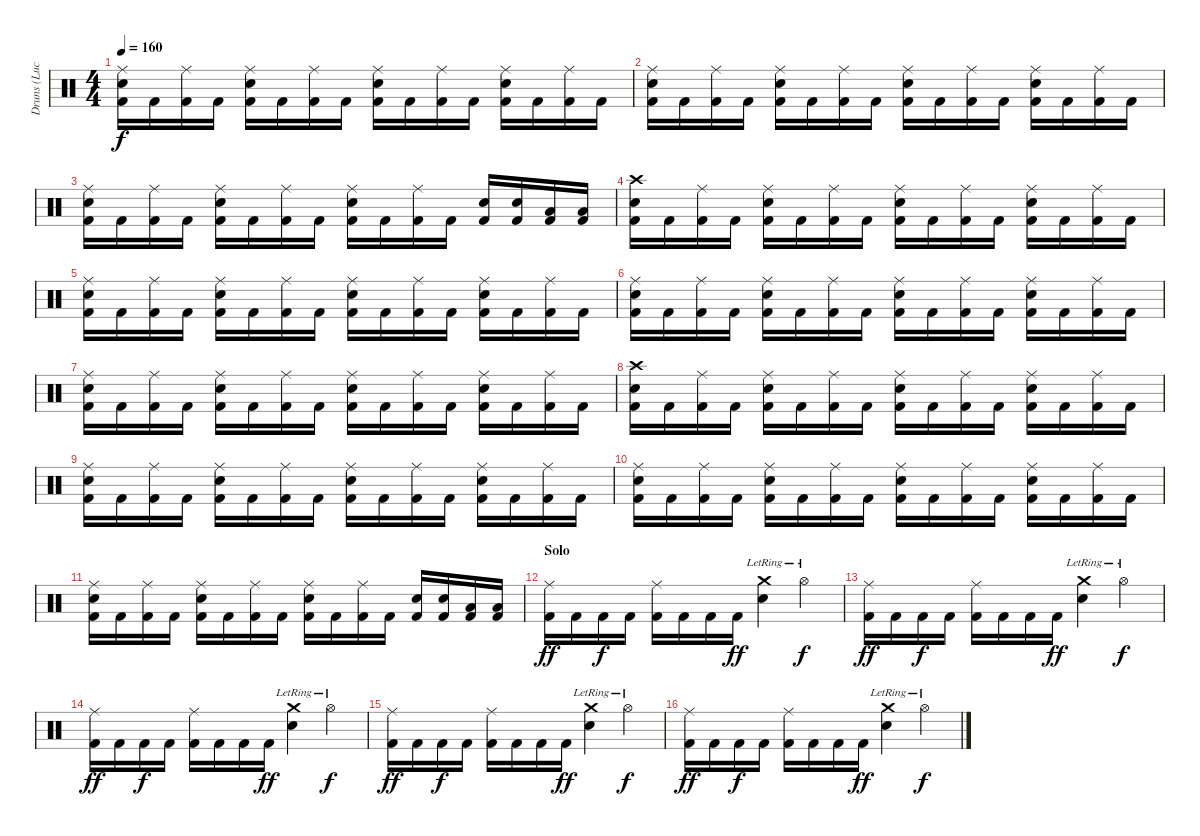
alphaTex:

\track ("Druns (Lucas Zigarti)" "Druns (Luc") {instrument percussion}
\staff {score}
\articulation defaults
\ts (4 4)
\tempo 160
\clef neutral
\ks c
("Electric Snare (hit)" "Ride (middle)" "Kick (hit) 2").16{dy f} "Kick (hit) 2".16 ("Ride (middle)" "Kick (hit) 2").16 "Kick (hit) 2".16 ("Electric Snare (hit)" "Ride (middle)" "Kick (hit) 2").16 "Kick (hit) 2".16 ("Ride (middle)" "Kick (hit) 2").16 "Kick (hit) 2".16 ("Electric Snare (hit)" "Ride (middle)" "Kick (hit) 2").16 "Kick (hit) 2".16 ("Ride (middle)" "Kick (hit) 2").16 "Kick (hit) 2".16 ("Electric Snare (hit)" "Ride (middle)" "Kick (hit) 2").16 "Kick (hit) 2".16 ("Ride (middle)" "Kick (hit) 2").16 "Kick (hit) 2".16 |
("Electric Snare (hit)" "Ride (middle)" "Kick (hit) 2").16 "Kick (hit) 2".16 ("Ride (middle)" "Kick (hit) 2").16 "Kick (hit) 2".16 ("Electric Snare (hit)" "Ride (middle)" "Kick (hit) 2").16 "Kick (hit) 2".16 ("Ride (middle)" "Kick (hit) 2").16 "Kick (hit) 2".16 ("Electric Snare (hit)" "Ride (middle)" "Kick (hit) 2").16 "Kick (hit) 2".16 ("Ride (middle)" "Kick (hit) 2").16 "Kick (hit) 2".16 ("Electric Snare (hit)" "Ride (middle)" "Kick (hit) 2").16 "Kick (hit) 2".16 ("Ride (middle)" "Kick (hit) 2").16 "Kick (hit) 2".16 |
("Electric Snare (hit)" "Ride (middle)" "Kick (hit) 2").16 "Kick (hit) 2".16 ("Ride (middle)" "Kick (hit) 2").16 "Kick (hit) 2".16 ("Electric Snare (hit)" "Ride (middle)" "Kick (hit) 2").16 "Kick (hit) 2".16 ("Ride (middle)" "Kick (hit) 2").16 "Kick (hit) 2".16 ("Electric Snare (hit)" "Ride (middle)" "Kick (hit) 2").16 "Kick (hit) 2".16 ("Ride (middle)" "Kick (hit) 2").16 "Kick (hit) 2".16 ("Electric Snare (hit)" "Kick (hit) 2").16 ("Electric Snare (hit)" "Kick (hit) 2").16 ("Low Floor Tom (hit)" "Kick (hit) 2").16 ("Low Floor Tom (hit)" "Kick (hit) 2").16 |
("Electric Snare (hit)" "Crash high (hit)" "Kick (hit) 2").16 "Kick (hit) 2".16 ("Ride (middle)" "Kick (hit) 2").16 "Kick (hit) 2".16 ("Electric Snare (hit)" "Ride (middle)" "Kick (hit) 2").16 "Kick (hit) 2".16 ("Ride (middle)" "Kick (hit) 2").16 "Kick (hit) 2".16 ("Electric Snare (hit)" "Ride (middle)" "Kick (hit) 2").16 "Kick (hit) 2".16 ("Ride (middle)" "Kick (hit) 2").16 "Kick (hit) 2".16 ("Electric Snare (hit)" "Ride (middle)" "Kick (hit) 2").16 "Kick (hit) 2".16 ("Ride (middle)" "Kick (hit) 2").16 "Kick (hit) 2".16 |
("Electric Snare (hit)" "Ride (middle)" "Kick (hit) 2").16 "Kick (hit) 2".16 ("Ride (middle)" "Kick (hit) 2").16 "Kick (hit) 2".16 ("Electric Snare (hit)" "Ride (middle)" "Kick (hit) 2").16 "Kick (hit) 2".16 ("Ride (middle)" "Kick (hit) 2").16 "Kick (hit) 2".16 ("Electric Snare (hit)" "Ride (middle)" "Kick (hit) 2").16 "Kick (hit) 2".16 ("Ride (middle)" "Kick (hit) 2").16 "Kick (hit) 2".16 ("Electric Snare (hit)" "Ride (middle)" "Kick (hit) 2").16 "Kick (hit) 2".16 ("Ride (middle)" "Kick (hit) 2").16 "Kick (hit) 2".16 |
("Electric Snare (hit)" "Ride (middle)" "Kick (hit) 2").16 "Kick (hit) 2".16 ("Ride (middle)" "Kick (hit) 2").16 "Kick (hit) 2".16 ("Electric Snare (hit)" "Ride (middle)" "Kick (hit) 2").16 "Kick (hit) 2".16 ("Ride (middle)" "Kick (hit) 2").16 "Kick (hit) 2".16 ("Electric Snare (hit)" "Ride (middle)" "Kick (hit) 2").16 "Kick (hit) 2".16 ("Ride (middle)" "Kick (hit) 2").16 "Kick (hit) 2".16 ("Electric Snare (hit)" "Ride (middle)" "Kick (hit) 2").16 "Kick (hit) 2".16 ("Ride (middle)" "Kick (hit) 2").16 "Kick (hit) 2".16 |
("Electric Snare (hit)" "Ride (middle)" "Kick (hit) 2").16 "Kick (hit) 2".16 ("Ride (middle)" "Kick (hit) 2").16 "Kick (hit) 2".16 ("Electric Snare (hit)" "Ride (middle)" "Kick (hit) 2").16 "Kick (hit) 2".16 ("Ride (middle)" "Kick (hit) 2").16 "Kick (hit) 2".16 ("Electric Snare (hit)" "Ride (middle)" "Kick (hit) 2").16 "Kick (hit) 2".16 ("Ride (middle)" "Kick (hit) 2").16 "Kick (hit) 2".16 ("Electric Snare (hit)" "Ride (middle)" "Kick (hit) 2").16 "Kick (hit) 2".16 ("Ride (middle)" "Kick (hit) 2").16 "Kick (hit) 2".16 |
("Electric Snare (hit)" "Crash high (hit)" "Kick (hit) 2").16 "Kick (hit) 2".16 ("Ride (middle)" "Kick (hit) 2").16 "Kick (hit) 2".16 ("Electric Snare (hit)" "Ride (middle)" "Kick (hit) 2").16 "Kick (hit) 2".16 ("Ride (middle)" "Kick (hit) 2").16 "Kick (hit) 2".16 ("Electric Snare (hit)" "Ride (middle)" "Kick (hit) 2").16 "Kick (hit) 2".16 ("Ride (middle)" "Kick (hit) 2").16 "Kick (hit) 2".16 ("Electric Snare (hit)" "Ride (middle)" "Kick (hit) 2").16 "Kick (hit) 2".16 ("Ride (middle)" "Kick (hit) 2").16 "Kick (hit) 2".16 |
("Electric Snare (hit)" "Ride (middle)" "Kick (hit) 2").16 "Kick (hit) 2".16 ("Ride (middle)" "Kick (hit) 2").16 "Kick (hit) 2".16 ("Electric Snare (hit)" "Ride (middle)" "Kick (hit) 2").16 "Kick (hit) 2".16 ("Ride (middle)" "Kick (hit) 2").16 "Kick (hit) 2".16 ("Electric Snare (hit)" "Ride (middle)" "Kick (hit) 2").16 "Kick (hit) 2".16 ("Ride (middle)" "Kick (hit) 2").16 "Kick (hit) 2".16 ("Electric Snare (hit)" "Ride (middle)" "Kick (hit) 2").16 "Kick (hit) 2".16 ("Ride (middle)" "Kick (hit) 2").16 "Kick (hit) 2".16 |
("Electric Snare (hit)" "Ride (middle)" "Kick (hit) 2").16 "Kick (hit) 2".16 ("Ride (middle)" "Kick (hit) 2").16 "Kick (hit) 2".16 ("Electric Snare (hit)" "Ride (middle)" "Kick (hit) 2").16 "Kick (hit) 2".16 ("Ride (middle)" "Kick (hit) 2").16 "Kick (hit) 2".16 ("Electric Snare (hit)" "Ride (middle)" "Kick (hit) 2").16 "Kick (hit) 2".16 ("Ride (middle)" "Kick (hit) 2").16 "Kick (hit) 2".16 ("Electric Snare (hit)" "Ride (middle)" "Kick (hit) 2").16 "Kick (hit) 2".16 ("Ride (middle)" "Kick (hit) 2").16 "Kick (hit) 2".16 |
("Electric Snare (hit)" "Ride (middle)" "Kick (hit) 2").16 "Kick (hit) 2".16 ("Ride (middle)" "Kick (hit) 2").16 "Kick (hit) 2".16 ("Electric Snare (hit)" "Ride (middle)" "Kick (hit) 2").16 "Kick (hit) 2".16 ("Ride (middle)" "Kick (hit) 2").16 "Kick (hit) 2".16 ("Electric Snare (hit)" "Ride (middle)" "Kick (hit) 2").16 "Kick (hit) 2".16 ("Ride (middle)" "Kick (hit) 2").16 "Kick (hit) 2".16 ("Electric Snare (hit)" "Kick (hit) 2").16 ("Electric Snare (hit)" "Kick (hit) 2").16 ("Low Floor Tom (hit)" "Kick (hit) 2").16 ("Low Floor Tom (hit)" "Kick (hit) 2").16 |
\section ("" "Solo")
("Ride (middle)" "Kick (hit) 2").16{dy ff} "Kick (hit) 2".16 "Kick (hit) 2".16{dy f} "Kick (hit) 2".16 ("Ride (middle)" "Kick (hit) 2").16 "Kick (hit) 2".16 "Kick (hit) 2".16 "Kick (hit) 2".16{dy ff} ("Crash medium (hit)"{lr} "Snare (hit) 2").4 "Hi-Hat (open)"{lr}.4{dy f} |
("Ride (middle)" "Kick (hit) 2").16{dy ff} "Kick (hit) 2".16 "Kick (hit) 2".16{dy f} "Kick (hit) 2".16 ("Ride (middle)" "Kick (hit) 2").16 "Kick (hit) 2".16 "Kick (hit) 2".16 "Kick (hit) 2".16{dy ff} ("Crash medium (hit)"{lr} "Snare (hit) 2").4 "Hi-Hat (open)"{lr}.4{dy f} |
("Ride (middle)" "Kick (hit) 2").16{dy ff} "Kick (hit) 2".16 "Kick (hit) 2".16{dy f} "Kick (hit) 2".16 ("Ride (middle)" "Kick (hit) 2").16 "Kick (hit) 2".16 "Kick (hit) 2".16 "Kick (hit) 2".16{dy ff} ("Crash medium (hit)"{lr} "Snare (hit) 2").4 "Hi-Hat (open)"{lr}.4{dy f} |
("Ride (middle)" "Kick (hit) 2").16{dy ff} "Kick (hit) 2".16 "Kick (hit) 2".16{dy f} "Kick (hit) 2".16 ("Ride (middle)" "Kick (hit) 2").16 "Kick (hit) 2".16 "Kick (hit) 2".16 "Kick (hit) 2".16{dy ff} ("Crash medium (hit)"{lr} "Snare (hit) 2").4 "Hi-Hat (open)"{lr}.4{dy f} |
("Ride (middle)" "Kick (hit) 2").16{dy ff} "Kick (hit) 2".16 "Kick (hit) 2".16{dy f} "Kick (hit) 2".16 ("Ride (middle)" "Kick (hit) 2").16 "Kick (hit) 2".16 "Kick (hit) 2".16 "Kick (hit) 2".16{dy ff} ("Crash medium (hit)"{lr} "Snare (hit) 2").4 "Hi-Hat (open)"{lr}.4{dy f}
